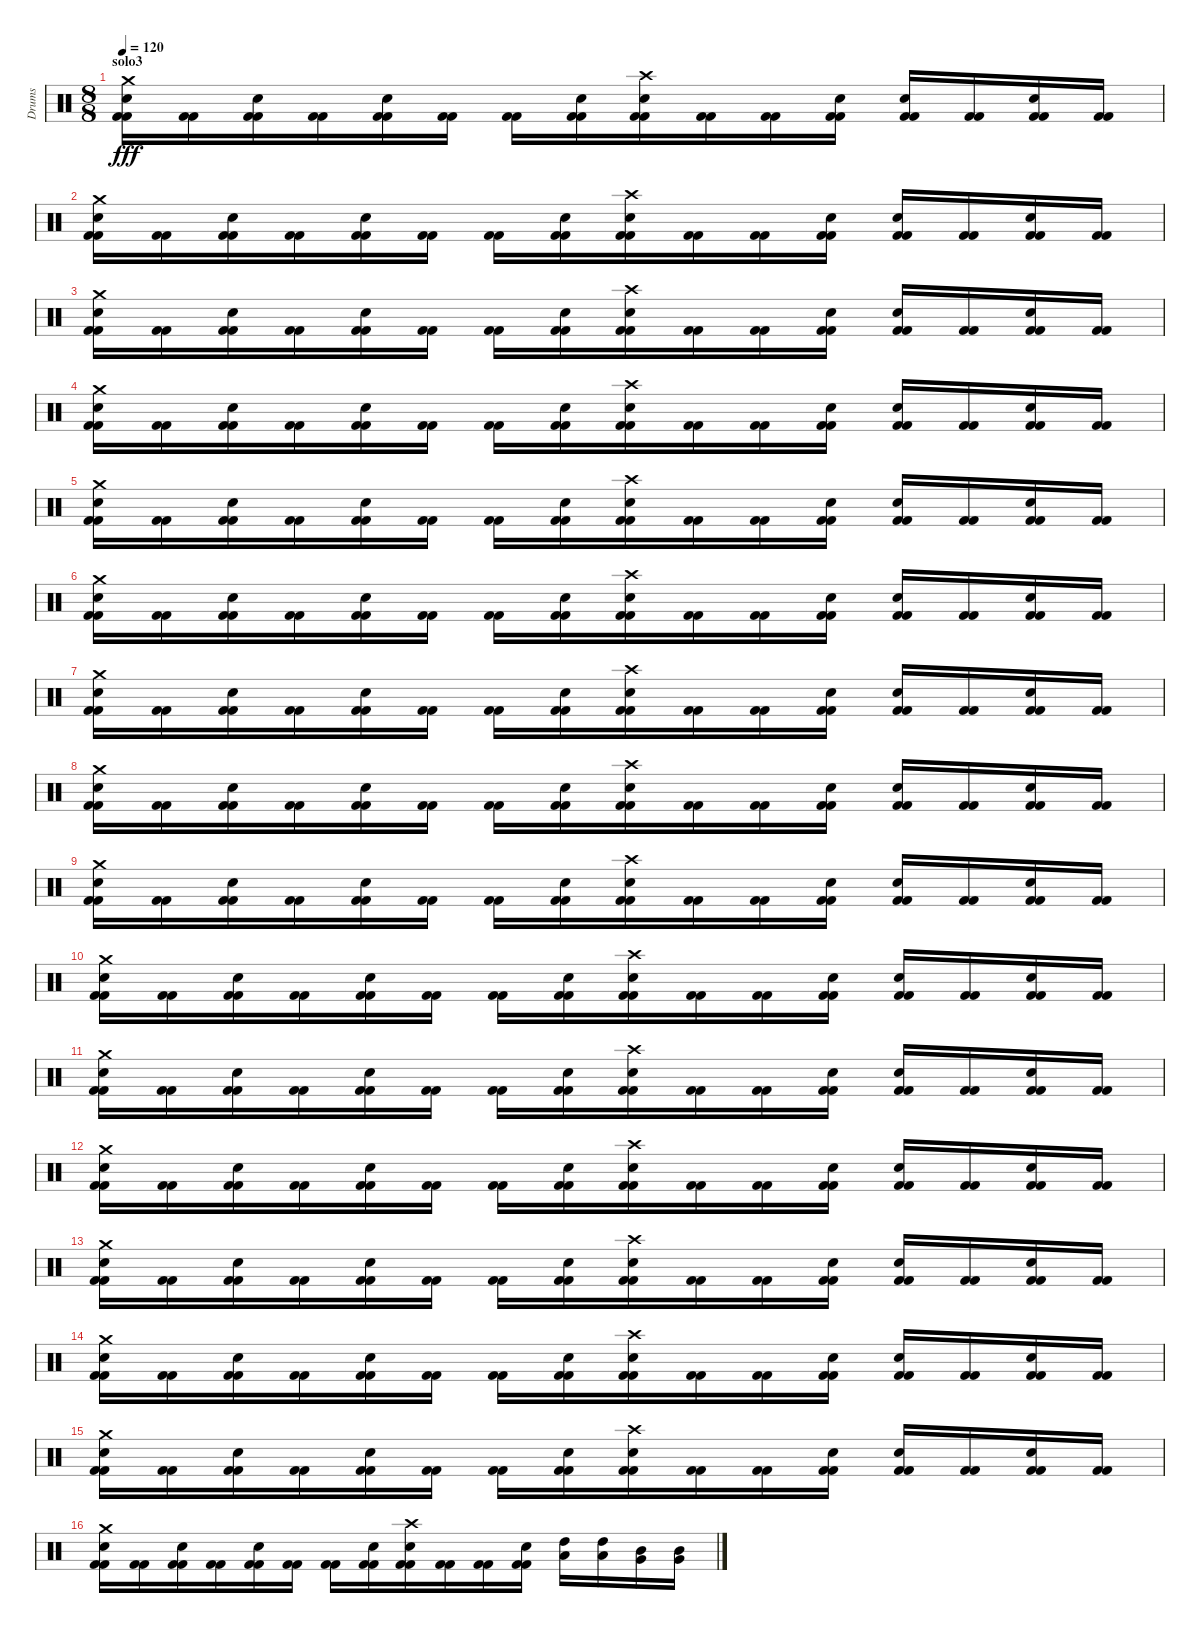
\track ("Drums" "Drums") {instrument percussion}
\staff {score}
\articulation defaults
\ts (8 8)
\section ("" "solo3")
\tempo 120
\clef neutral
\ks c
("Kick (hit) 2" "Kick (hit) 2" "Electric Snare (hit)" "Crash medium (hit)").16{dy fff} ("Kick (hit) 2" "Kick (hit) 2").16 ("Kick (hit) 2" "Kick (hit) 2" "Electric Snare (hit)").16 ("Kick (hit) 2" "Kick (hit) 2").16 ("Kick (hit) 2" "Kick (hit) 2" "Electric Snare (hit)").16 ("Kick (hit) 2" "Kick (hit) 2").16 ("Kick (hit) 2" "Kick (hit) 2").16 ("Kick (hit) 2" "Kick (hit) 2" "Electric Snare (hit)").16 ("Kick (hit) 2" "Kick (hit) 2" "Electric Snare (hit)" "Crash high (hit)").16 ("Kick (hit) 2" "Kick (hit) 2").16 ("Kick (hit) 2" "Kick (hit) 2").16 ("Kick (hit) 2" "Kick (hit) 2" "Electric Snare (hit)").16 ("Kick (hit) 2" "Kick (hit) 2" "Electric Snare (hit)").16 ("Kick (hit) 2" "Kick (hit) 2").16 ("Kick (hit) 2" "Kick (hit) 2" "Electric Snare (hit)").16 ("Kick (hit) 2" "Kick (hit) 2").16 |
("Kick (hit) 2" "Kick (hit) 2" "Electric Snare (hit)" "Crash medium (hit)").16 ("Kick (hit) 2" "Kick (hit) 2").16 ("Kick (hit) 2" "Kick (hit) 2" "Electric Snare (hit)").16 ("Kick (hit) 2" "Kick (hit) 2").16 ("Kick (hit) 2" "Kick (hit) 2" "Electric Snare (hit)").16 ("Kick (hit) 2" "Kick (hit) 2").16 ("Kick (hit) 2" "Kick (hit) 2").16 ("Kick (hit) 2" "Kick (hit) 2" "Electric Snare (hit)").16 ("Kick (hit) 2" "Kick (hit) 2" "Electric Snare (hit)" "Crash high (hit)").16 ("Kick (hit) 2" "Kick (hit) 2").16 ("Kick (hit) 2" "Kick (hit) 2").16 ("Kick (hit) 2" "Kick (hit) 2" "Electric Snare (hit)").16 ("Kick (hit) 2" "Kick (hit) 2" "Electric Snare (hit)").16 ("Kick (hit) 2" "Kick (hit) 2").16 ("Kick (hit) 2" "Kick (hit) 2" "Electric Snare (hit)").16 ("Kick (hit) 2" "Kick (hit) 2").16 |
("Kick (hit) 2" "Kick (hit) 2" "Electric Snare (hit)" "Crash medium (hit)").16 ("Kick (hit) 2" "Kick (hit) 2").16 ("Kick (hit) 2" "Kick (hit) 2" "Electric Snare (hit)").16 ("Kick (hit) 2" "Kick (hit) 2").16 ("Kick (hit) 2" "Kick (hit) 2" "Electric Snare (hit)").16 ("Kick (hit) 2" "Kick (hit) 2").16 ("Kick (hit) 2" "Kick (hit) 2").16 ("Kick (hit) 2" "Kick (hit) 2" "Electric Snare (hit)").16 ("Kick (hit) 2" "Kick (hit) 2" "Electric Snare (hit)" "Crash high (hit)").16 ("Kick (hit) 2" "Kick (hit) 2").16 ("Kick (hit) 2" "Kick (hit) 2").16 ("Kick (hit) 2" "Kick (hit) 2" "Electric Snare (hit)").16 ("Kick (hit) 2" "Kick (hit) 2" "Electric Snare (hit)").16 ("Kick (hit) 2" "Kick (hit) 2").16 ("Kick (hit) 2" "Kick (hit) 2" "Electric Snare (hit)").16 ("Kick (hit) 2" "Kick (hit) 2").16 |
("Kick (hit) 2" "Kick (hit) 2" "Electric Snare (hit)" "Crash medium (hit)").16 ("Kick (hit) 2" "Kick (hit) 2").16 ("Kick (hit) 2" "Kick (hit) 2" "Electric Snare (hit)").16 ("Kick (hit) 2" "Kick (hit) 2").16 ("Kick (hit) 2" "Kick (hit) 2" "Electric Snare (hit)").16 ("Kick (hit) 2" "Kick (hit) 2").16 ("Kick (hit) 2" "Kick (hit) 2").16 ("Kick (hit) 2" "Kick (hit) 2" "Electric Snare (hit)").16 ("Kick (hit) 2" "Kick (hit) 2" "Electric Snare (hit)" "Crash high (hit)").16 ("Kick (hit) 2" "Kick (hit) 2").16 ("Kick (hit) 2" "Kick (hit) 2").16 ("Kick (hit) 2" "Kick (hit) 2" "Electric Snare (hit)").16 ("Kick (hit) 2" "Kick (hit) 2" "Electric Snare (hit)").16 ("Kick (hit) 2" "Kick (hit) 2").16 ("Kick (hit) 2" "Kick (hit) 2" "Electric Snare (hit)").16 ("Kick (hit) 2" "Kick (hit) 2").16 |
("Kick (hit) 2" "Kick (hit) 2" "Electric Snare (hit)" "Crash medium (hit)").16 ("Kick (hit) 2" "Kick (hit) 2").16 ("Kick (hit) 2" "Kick (hit) 2" "Electric Snare (hit)").16 ("Kick (hit) 2" "Kick (hit) 2").16 ("Kick (hit) 2" "Kick (hit) 2" "Electric Snare (hit)").16 ("Kick (hit) 2" "Kick (hit) 2").16 ("Kick (hit) 2" "Kick (hit) 2").16 ("Kick (hit) 2" "Kick (hit) 2" "Electric Snare (hit)").16 ("Kick (hit) 2" "Kick (hit) 2" "Electric Snare (hit)" "Crash high (hit)").16 ("Kick (hit) 2" "Kick (hit) 2").16 ("Kick (hit) 2" "Kick (hit) 2").16 ("Kick (hit) 2" "Kick (hit) 2" "Electric Snare (hit)").16 ("Kick (hit) 2" "Kick (hit) 2" "Electric Snare (hit)").16 ("Kick (hit) 2" "Kick (hit) 2").16 ("Kick (hit) 2" "Kick (hit) 2" "Electric Snare (hit)").16 ("Kick (hit) 2" "Kick (hit) 2").16 |
("Kick (hit) 2" "Kick (hit) 2" "Electric Snare (hit)" "Crash medium (hit)").16 ("Kick (hit) 2" "Kick (hit) 2").16 ("Kick (hit) 2" "Kick (hit) 2" "Electric Snare (hit)").16 ("Kick (hit) 2" "Kick (hit) 2").16 ("Kick (hit) 2" "Kick (hit) 2" "Electric Snare (hit)").16 ("Kick (hit) 2" "Kick (hit) 2").16 ("Kick (hit) 2" "Kick (hit) 2").16 ("Kick (hit) 2" "Kick (hit) 2" "Electric Snare (hit)").16 ("Kick (hit) 2" "Kick (hit) 2" "Electric Snare (hit)" "Crash high (hit)").16 ("Kick (hit) 2" "Kick (hit) 2").16 ("Kick (hit) 2" "Kick (hit) 2").16 ("Kick (hit) 2" "Kick (hit) 2" "Electric Snare (hit)").16 ("Kick (hit) 2" "Kick (hit) 2" "Electric Snare (hit)").16 ("Kick (hit) 2" "Kick (hit) 2").16 ("Kick (hit) 2" "Kick (hit) 2" "Electric Snare (hit)").16 ("Kick (hit) 2" "Kick (hit) 2").16 |
("Kick (hit) 2" "Kick (hit) 2" "Electric Snare (hit)" "Crash medium (hit)").16 ("Kick (hit) 2" "Kick (hit) 2").16 ("Kick (hit) 2" "Kick (hit) 2" "Electric Snare (hit)").16 ("Kick (hit) 2" "Kick (hit) 2").16 ("Kick (hit) 2" "Kick (hit) 2" "Electric Snare (hit)").16 ("Kick (hit) 2" "Kick (hit) 2").16 ("Kick (hit) 2" "Kick (hit) 2").16 ("Kick (hit) 2" "Kick (hit) 2" "Electric Snare (hit)").16 ("Kick (hit) 2" "Kick (hit) 2" "Electric Snare (hit)" "Crash high (hit)").16 ("Kick (hit) 2" "Kick (hit) 2").16 ("Kick (hit) 2" "Kick (hit) 2").16 ("Kick (hit) 2" "Kick (hit) 2" "Electric Snare (hit)").16 ("Kick (hit) 2" "Kick (hit) 2" "Electric Snare (hit)").16 ("Kick (hit) 2" "Kick (hit) 2").16 ("Kick (hit) 2" "Kick (hit) 2" "Electric Snare (hit)").16 ("Kick (hit) 2" "Kick (hit) 2").16 |
("Kick (hit) 2" "Kick (hit) 2" "Electric Snare (hit)" "Crash medium (hit)").16 ("Kick (hit) 2" "Kick (hit) 2").16 ("Kick (hit) 2" "Kick (hit) 2" "Electric Snare (hit)").16 ("Kick (hit) 2" "Kick (hit) 2").16 ("Kick (hit) 2" "Kick (hit) 2" "Electric Snare (hit)").16 ("Kick (hit) 2" "Kick (hit) 2").16 ("Kick (hit) 2" "Kick (hit) 2").16 ("Kick (hit) 2" "Kick (hit) 2" "Electric Snare (hit)").16 ("Kick (hit) 2" "Kick (hit) 2" "Electric Snare (hit)" "Crash high (hit)").16 ("Kick (hit) 2" "Kick (hit) 2").16 ("Kick (hit) 2" "Kick (hit) 2").16 ("Kick (hit) 2" "Kick (hit) 2" "Electric Snare (hit)").16 ("Kick (hit) 2" "Kick (hit) 2" "Electric Snare (hit)").16 ("Kick (hit) 2" "Kick (hit) 2").16 ("Kick (hit) 2" "Kick (hit) 2" "Electric Snare (hit)").16 ("Kick (hit) 2" "Kick (hit) 2").16 |
("Kick (hit) 2" "Kick (hit) 2" "Electric Snare (hit)" "Crash medium (hit)").16 ("Kick (hit) 2" "Kick (hit) 2").16 ("Kick (hit) 2" "Kick (hit) 2" "Electric Snare (hit)").16 ("Kick (hit) 2" "Kick (hit) 2").16 ("Kick (hit) 2" "Kick (hit) 2" "Electric Snare (hit)").16 ("Kick (hit) 2" "Kick (hit) 2").16 ("Kick (hit) 2" "Kick (hit) 2").16 ("Kick (hit) 2" "Kick (hit) 2" "Electric Snare (hit)").16 ("Kick (hit) 2" "Kick (hit) 2" "Electric Snare (hit)" "Crash high (hit)").16 ("Kick (hit) 2" "Kick (hit) 2").16 ("Kick (hit) 2" "Kick (hit) 2").16 ("Kick (hit) 2" "Kick (hit) 2" "Electric Snare (hit)").16 ("Kick (hit) 2" "Kick (hit) 2" "Electric Snare (hit)").16 ("Kick (hit) 2" "Kick (hit) 2").16 ("Kick (hit) 2" "Kick (hit) 2" "Electric Snare (hit)").16 ("Kick (hit) 2" "Kick (hit) 2").16 |
("Kick (hit) 2" "Kick (hit) 2" "Electric Snare (hit)" "Crash medium (hit)").16 ("Kick (hit) 2" "Kick (hit) 2").16 ("Kick (hit) 2" "Kick (hit) 2" "Electric Snare (hit)").16 ("Kick (hit) 2" "Kick (hit) 2").16 ("Kick (hit) 2" "Kick (hit) 2" "Electric Snare (hit)").16 ("Kick (hit) 2" "Kick (hit) 2").16 ("Kick (hit) 2" "Kick (hit) 2").16 ("Kick (hit) 2" "Kick (hit) 2" "Electric Snare (hit)").16 ("Kick (hit) 2" "Kick (hit) 2" "Electric Snare (hit)" "Crash high (hit)").16 ("Kick (hit) 2" "Kick (hit) 2").16 ("Kick (hit) 2" "Kick (hit) 2").16 ("Kick (hit) 2" "Kick (hit) 2" "Electric Snare (hit)").16 ("Kick (hit) 2" "Kick (hit) 2" "Electric Snare (hit)").16 ("Kick (hit) 2" "Kick (hit) 2").16 ("Kick (hit) 2" "Kick (hit) 2" "Electric Snare (hit)").16 ("Kick (hit) 2" "Kick (hit) 2").16 |
("Kick (hit) 2" "Kick (hit) 2" "Electric Snare (hit)" "Crash medium (hit)").16 ("Kick (hit) 2" "Kick (hit) 2").16 ("Kick (hit) 2" "Kick (hit) 2" "Electric Snare (hit)").16 ("Kick (hit) 2" "Kick (hit) 2").16 ("Kick (hit) 2" "Kick (hit) 2" "Electric Snare (hit)").16 ("Kick (hit) 2" "Kick (hit) 2").16 ("Kick (hit) 2" "Kick (hit) 2").16 ("Kick (hit) 2" "Kick (hit) 2" "Electric Snare (hit)").16 ("Kick (hit) 2" "Kick (hit) 2" "Electric Snare (hit)" "Crash high (hit)").16 ("Kick (hit) 2" "Kick (hit) 2").16 ("Kick (hit) 2" "Kick (hit) 2").16 ("Kick (hit) 2" "Kick (hit) 2" "Electric Snare (hit)").16 ("Kick (hit) 2" "Kick (hit) 2" "Electric Snare (hit)").16 ("Kick (hit) 2" "Kick (hit) 2").16 ("Kick (hit) 2" "Kick (hit) 2" "Electric Snare (hit)").16 ("Kick (hit) 2" "Kick (hit) 2").16 |
("Kick (hit) 2" "Kick (hit) 2" "Electric Snare (hit)" "Crash medium (hit)").16 ("Kick (hit) 2" "Kick (hit) 2").16 ("Kick (hit) 2" "Kick (hit) 2" "Electric Snare (hit)").16 ("Kick (hit) 2" "Kick (hit) 2").16 ("Kick (hit) 2" "Kick (hit) 2" "Electric Snare (hit)").16 ("Kick (hit) 2" "Kick (hit) 2").16 ("Kick (hit) 2" "Kick (hit) 2").16 ("Kick (hit) 2" "Kick (hit) 2" "Electric Snare (hit)").16 ("Kick (hit) 2" "Kick (hit) 2" "Electric Snare (hit)" "Crash high (hit)").16 ("Kick (hit) 2" "Kick (hit) 2").16 ("Kick (hit) 2" "Kick (hit) 2").16 ("Kick (hit) 2" "Kick (hit) 2" "Electric Snare (hit)").16 ("Kick (hit) 2" "Kick (hit) 2" "Electric Snare (hit)").16 ("Kick (hit) 2" "Kick (hit) 2").16 ("Kick (hit) 2" "Kick (hit) 2" "Electric Snare (hit)").16 ("Kick (hit) 2" "Kick (hit) 2").16 |
("Kick (hit) 2" "Kick (hit) 2" "Electric Snare (hit)" "Crash medium (hit)").16 ("Kick (hit) 2" "Kick (hit) 2").16 ("Kick (hit) 2" "Kick (hit) 2" "Electric Snare (hit)").16 ("Kick (hit) 2" "Kick (hit) 2").16 ("Kick (hit) 2" "Kick (hit) 2" "Electric Snare (hit)").16 ("Kick (hit) 2" "Kick (hit) 2").16 ("Kick (hit) 2" "Kick (hit) 2").16 ("Kick (hit) 2" "Kick (hit) 2" "Electric Snare (hit)").16 ("Kick (hit) 2" "Kick (hit) 2" "Electric Snare (hit)" "Crash high (hit)").16 ("Kick (hit) 2" "Kick (hit) 2").16 ("Kick (hit) 2" "Kick (hit) 2").16 ("Kick (hit) 2" "Kick (hit) 2" "Electric Snare (hit)").16 ("Kick (hit) 2" "Kick (hit) 2" "Electric Snare (hit)").16 ("Kick (hit) 2" "Kick (hit) 2").16 ("Kick (hit) 2" "Kick (hit) 2" "Electric Snare (hit)").16 ("Kick (hit) 2" "Kick (hit) 2").16 |
("Kick (hit) 2" "Kick (hit) 2" "Electric Snare (hit)" "Crash medium (hit)").16 ("Kick (hit) 2" "Kick (hit) 2").16 ("Kick (hit) 2" "Kick (hit) 2" "Electric Snare (hit)").16 ("Kick (hit) 2" "Kick (hit) 2").16 ("Kick (hit) 2" "Kick (hit) 2" "Electric Snare (hit)").16 ("Kick (hit) 2" "Kick (hit) 2").16 ("Kick (hit) 2" "Kick (hit) 2").16 ("Kick (hit) 2" "Kick (hit) 2" "Electric Snare (hit)").16 ("Kick (hit) 2" "Kick (hit) 2" "Electric Snare (hit)" "Crash high (hit)").16 ("Kick (hit) 2" "Kick (hit) 2").16 ("Kick (hit) 2" "Kick (hit) 2").16 ("Kick (hit) 2" "Kick (hit) 2" "Electric Snare (hit)").16 ("Kick (hit) 2" "Kick (hit) 2" "Electric Snare (hit)").16 ("Kick (hit) 2" "Kick (hit) 2").16 ("Kick (hit) 2" "Kick (hit) 2" "Electric Snare (hit)").16 ("Kick (hit) 2" "Kick (hit) 2").16 |
("Kick (hit) 2" "Kick (hit) 2" "Electric Snare (hit)" "Crash medium (hit)").16 ("Kick (hit) 2" "Kick (hit) 2").16 ("Kick (hit) 2" "Kick (hit) 2" "Electric Snare (hit)").16 ("Kick (hit) 2" "Kick (hit) 2").16 ("Kick (hit) 2" "Kick (hit) 2" "Electric Snare (hit)").16 ("Kick (hit) 2" "Kick (hit) 2").16 ("Kick (hit) 2" "Kick (hit) 2").16 ("Kick (hit) 2" "Kick (hit) 2" "Electric Snare (hit)").16 ("Kick (hit) 2" "Kick (hit) 2" "Electric Snare (hit)" "Crash high (hit)").16 ("Kick (hit) 2" "Kick (hit) 2").16 ("Kick (hit) 2" "Kick (hit) 2").16 ("Kick (hit) 2" "Kick (hit) 2" "Electric Snare (hit)").16 ("Kick (hit) 2" "Kick (hit) 2" "Electric Snare (hit)").16 ("Kick (hit) 2" "Kick (hit) 2").16 ("Kick (hit) 2" "Kick (hit) 2" "Electric Snare (hit)").16 ("Kick (hit) 2" "Kick (hit) 2").16 |
("Kick (hit) 2" "Kick (hit) 2" "Electric Snare (hit)" "Crash medium (hit)").16 ("Kick (hit) 2" "Kick (hit) 2").16 ("Kick (hit) 2" "Kick (hit) 2" "Electric Snare (hit)").16 ("Kick (hit) 2" "Kick (hit) 2").16 ("Kick (hit) 2" "Kick (hit) 2" "Electric Snare (hit)").16 ("Kick (hit) 2" "Kick (hit) 2").16 ("Kick (hit) 2" "Kick (hit) 2").16 ("Kick (hit) 2" "Kick (hit) 2" "Electric Snare (hit)").16 ("Kick (hit) 2" "Kick (hit) 2" "Electric Snare (hit)" "Crash high (hit)").16 ("Kick (hit) 2" "Kick (hit) 2").16 ("Kick (hit) 2" "Kick (hit) 2").16 ("Kick (hit) 2" "Kick (hit) 2" "Electric Snare (hit)").16 ("High Tom (hit)" "Low Tom (hit)").16 ("High Tom (hit)" "Low Tom (hit)").16 ("Mid Tom (hit)" "Very Low Tom (hit)").16 ("Mid Tom (hit)" "Very Low Tom (hit)").16
